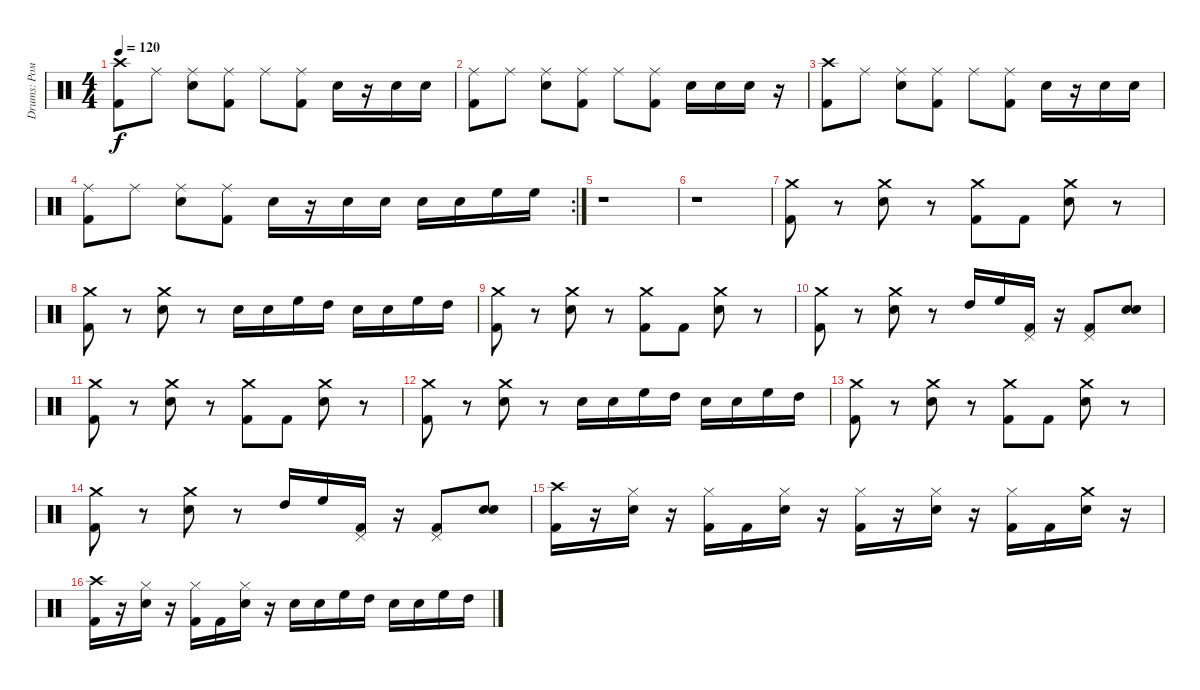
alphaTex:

\track ("Drums: Рома" "Drums: Ром") {instrument percussion}
\staff {score}
\articulation defaults
\ts (4 4)
\tempo 120
\clef neutral
\ks c
("Crash high (hit)" "Kick (hit) 2").8{dy f} "Ride (middle)".8 ("Ride (middle)" "Snare (hit) 2").8 ("Ride (middle)" "Kick (hit) 2").8 "Ride (middle)".8 ("Ride (middle)" "Kick (hit) 2").8 "Snare (hit) 2".16 r.16 "Snare (hit) 2".16 "Snare (hit) 2".16 |
("Ride (middle)" "Kick (hit) 2").8 "Ride (middle)".8 ("Ride (middle)" "Snare (hit) 2").8 ("Ride (middle)" "Kick (hit) 2").8 "Ride (middle)".8 ("Ride (middle)" "Kick (hit) 2").8 "Snare (hit) 2".16 "Snare (hit) 2".16 "Snare (hit) 2".16 r.16 |
("Crash high (hit)" "Kick (hit) 2").8 "Ride (middle)".8 ("Ride (middle)" "Snare (hit) 2").8 ("Ride (middle)" "Kick (hit) 2").8 "Ride (middle)".8 ("Ride (middle)" "Kick (hit) 2").8 "Snare (hit) 2".16 r.16 "Snare (hit) 2".16 "Snare (hit) 2".16 |
\rc 2
("Ride (middle)" "Kick (hit) 2").8 "Ride (middle)".8 ("Ride (middle)" "Snare (hit) 2").8 ("Ride (middle)" "Kick (hit) 2").8 "Snare (hit) 2".16 r.16 "Snare (hit) 2".16 "Snare (hit) 2".16 "Snare (hit) 2".16 "Snare (hit) 2".16 "High Floor Tom (hit)".16 "High Floor Tom (hit)".16 |
r.1 |
r.1 |
("Kick (hit) 2" "Crash medium (hit)").8 r.8 ("Snare (hit) 2" "Crash medium (hit)").8 r.8 ("Kick (hit) 2" "Crash medium (hit)").8 "Kick (hit) 2".8 ("Snare (hit) 2" "Crash medium (hit)").8 r.8 |
("Kick (hit) 2" "Crash medium (hit)").8 r.8 ("Snare (hit) 2" "Crash medium (hit)").8 r.8 "Snare (hit) 2".16 "Snare (hit) 2".16 "High Floor Tom (hit)".16 "High Tom (hit)".16 "Snare (hit) 2".16 "Snare (hit) 2".16 "High Floor Tom (hit)".16 "High Tom (hit)".16 |
("Kick (hit) 2" "Crash medium (hit)").8 r.8 ("Snare (hit) 2" "Crash medium (hit)").8 r.8 ("Kick (hit) 2" "Crash medium (hit)").8 "Kick (hit) 2".8 ("Snare (hit) 2" "Crash medium (hit)").8 r.8 |
("Kick (hit) 2" "Crash medium (hit)").8 r.8 ("Snare (hit) 2" "Crash medium (hit)").8 r.8 "High Tom (hit)".16 "High Floor Tom (hit)".16 ("Kick (hit) 2" "Pedal Hi-Hat (hit)").16 r.16 ("Kick (hit) 2" "Pedal Hi-Hat (hit)").8 ("Snare (hit) 2" "Snare (hit) 2").8 |
("Kick (hit) 2" "Crash medium (hit)").8 r.8 ("Snare (hit) 2" "Crash medium (hit)").8 r.8 ("Kick (hit) 2" "Crash medium (hit)").8 "Kick (hit) 2".8 ("Snare (hit) 2" "Crash medium (hit)").8 r.8 |
("Kick (hit) 2" "Crash medium (hit)").8 r.8 ("Snare (hit) 2" "Crash medium (hit)").8 r.8 "Snare (hit) 2".16 "Snare (hit) 2".16 "High Floor Tom (hit)".16 "High Tom (hit)".16 "Snare (hit) 2".16 "Snare (hit) 2".16 "High Floor Tom (hit)".16 "High Tom (hit)".16 |
("Kick (hit) 2" "Crash medium (hit)").8 r.8 ("Snare (hit) 2" "Crash medium (hit)").8 r.8 ("Kick (hit) 2" "Crash medium (hit)").8 "Kick (hit) 2".8 ("Snare (hit) 2" "Crash medium (hit)").8 r.8 |
("Kick (hit) 2" "Crash medium (hit)").8 r.8 ("Snare (hit) 2" "Crash medium (hit)").8 r.8 "High Tom (hit)".16 "High Floor Tom (hit)".16 ("Kick (hit) 2" "Pedal Hi-Hat (hit)").16 r.16 ("Kick (hit) 2" "Pedal Hi-Hat (hit)").8 ("Snare (hit) 2" "Snare (hit) 2").8 |
("Crash high (hit)" "Kick (hit) 2").16 r.16 ("Hi-Hat (closed)" "Snare (hit) 2").16 r.16 ("Hi-Hat (closed)" "Kick (hit) 2").16 "Kick (hit) 2".16 ("Hi-Hat (closed)" "Snare (hit) 2").16 r.16 ("Hi-Hat (closed)" "Kick (hit) 2").16 r.16 ("Hi-Hat (closed)" "Snare (hit) 2").16 r.16 ("Hi-Hat (closed)" "Kick (hit) 2").16 "Kick (hit) 2".16 ("Crash medium (hit)" "Snare (hit) 2").16 r.16 |
("Crash high (hit)" "Kick (hit) 2").16 r.16 ("Hi-Hat (closed)" "Snare (hit) 2").16 r.16 ("Hi-Hat (closed)" "Kick (hit) 2").16 "Kick (hit) 2".16 ("Hi-Hat (closed)" "Snare (hit) 2").16 r.16 "Snare (hit) 2".16 "Snare (hit) 2".16 "High Floor Tom (hit)".16 "High Tom (hit)".16 "Snare (hit) 2".16 "Snare (hit) 2".16 "High Floor Tom (hit)".16 "High Tom (hit)".16
